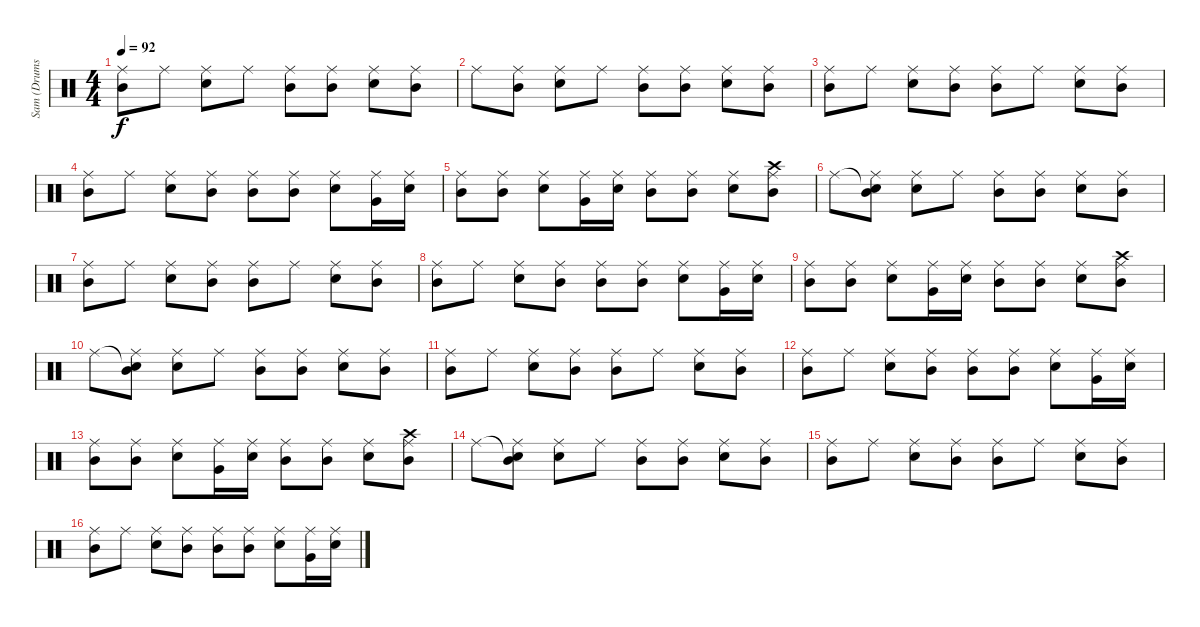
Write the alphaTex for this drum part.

\track ("Sam (Drums)" "Sam (Drums") {instrument percussion}
\staff {score}
\articulation defaults
\ts (4 4)
\tempo 92
\clef neutral
\ks c
("Mid Tom (hit)" "Ride (middle)").8{dy f} "Ride (middle)".8 ("Electric Snare (hit)" "Ride (middle)").8 "Ride (middle)".8 ("Mid Tom (hit)" "Ride (middle)").8 ("Mid Tom (hit)" "Ride (middle)").8 ("Electric Snare (hit)" "Ride (middle)").8 ("Mid Tom (hit)" "Ride (middle)").8 |
"Ride (middle)".8 ("Mid Tom (hit)" "Ride (middle)").8 ("Electric Snare (hit)" "Ride (middle)").8 "Ride (middle)".8 ("Mid Tom (hit)" "Ride (middle)").8 ("Mid Tom (hit)" "Ride (middle)").8 ("Electric Snare (hit)" "Ride (middle)").8 ("Mid Tom (hit)" "Ride (middle)").8 |
("Mid Tom (hit)" "Ride (middle)").8 "Ride (middle)".8 ("Electric Snare (hit)" "Ride (middle)").8 ("Mid Tom (hit)" "Ride (middle)").8 ("Mid Tom (hit)" "Ride (middle)").8 "Ride (middle)".8 ("Electric Snare (hit)" "Ride (middle)").8 ("Mid Tom (hit)" "Ride (middle)").8 |
("Mid Tom (hit)" "Ride (middle)").8 "Ride (middle)".8 ("Electric Snare (hit)" "Ride (middle)").8 ("Mid Tom (hit)" "Ride (middle)").8 ("Mid Tom (hit)" "Ride (middle)").8 ("Mid Tom (hit)" "Ride (middle)").8 ("Electric Snare (hit)" "Ride (middle)").8 ("Very Low Tom (hit)" "Ride (middle)").16 ("Electric Snare (hit)" "Ride (middle)").16 |
("Mid Tom (hit)" "Ride (middle)").8 ("Mid Tom (hit)" "Ride (middle)").8 ("Electric Snare (hit)" "Ride (middle)").8 ("Very Low Tom (hit)" "Ride (middle)").16 ("Electric Snare (hit)" "Ride (middle)").16 ("Mid Tom (hit)" "Ride (middle)").8 ("Mid Tom (hit)" "Ride (middle)").8 ("Electric Snare (hit)" "Ride (middle)").8 ("Crash high (hit)" "Mid Tom (hit)" "Ride (middle)").8 |
"Ride (middle)".8 ("Snare (hit)"{t} "Mid Tom (hit)" "Ride (middle)").8 ("Electric Snare (hit)" "Ride (middle)").8 "Ride (middle)".8 ("Mid Tom (hit)" "Ride (middle)").8 ("Mid Tom (hit)" "Ride (middle)").8 ("Electric Snare (hit)" "Ride (middle)").8 ("Mid Tom (hit)" "Ride (middle)").8 |
("Mid Tom (hit)" "Ride (middle)").8 "Ride (middle)".8 ("Electric Snare (hit)" "Ride (middle)").8 ("Mid Tom (hit)" "Ride (middle)").8 ("Mid Tom (hit)" "Ride (middle)").8 "Ride (middle)".8 ("Electric Snare (hit)" "Ride (middle)").8 ("Mid Tom (hit)" "Ride (middle)").8 |
("Mid Tom (hit)" "Ride (middle)").8 "Ride (middle)".8 ("Electric Snare (hit)" "Ride (middle)").8 ("Mid Tom (hit)" "Ride (middle)").8 ("Mid Tom (hit)" "Ride (middle)").8 ("Mid Tom (hit)" "Ride (middle)").8 ("Electric Snare (hit)" "Ride (middle)").8 ("Very Low Tom (hit)" "Ride (middle)").16 ("Electric Snare (hit)" "Ride (middle)").16 |
("Mid Tom (hit)" "Ride (middle)").8 ("Mid Tom (hit)" "Ride (middle)").8 ("Electric Snare (hit)" "Ride (middle)").8 ("Very Low Tom (hit)" "Ride (middle)").16 ("Electric Snare (hit)" "Ride (middle)").16 ("Mid Tom (hit)" "Ride (middle)").8 ("Mid Tom (hit)" "Ride (middle)").8 ("Electric Snare (hit)" "Ride (middle)").8 ("Crash high (hit)" "Mid Tom (hit)" "Ride (middle)").8 |
"Ride (middle)".8 ("Snare (hit)"{t} "Mid Tom (hit)" "Ride (middle)").8 ("Electric Snare (hit)" "Ride (middle)").8 "Ride (middle)".8 ("Mid Tom (hit)" "Ride (middle)").8 ("Mid Tom (hit)" "Ride (middle)").8 ("Electric Snare (hit)" "Ride (middle)").8 ("Mid Tom (hit)" "Ride (middle)").8 |
("Mid Tom (hit)" "Ride (middle)").8 "Ride (middle)".8 ("Electric Snare (hit)" "Ride (middle)").8 ("Mid Tom (hit)" "Ride (middle)").8 ("Mid Tom (hit)" "Ride (middle)").8 "Ride (middle)".8 ("Electric Snare (hit)" "Ride (middle)").8 ("Mid Tom (hit)" "Ride (middle)").8 |
("Mid Tom (hit)" "Ride (middle)").8 "Ride (middle)".8 ("Electric Snare (hit)" "Ride (middle)").8 ("Mid Tom (hit)" "Ride (middle)").8 ("Mid Tom (hit)" "Ride (middle)").8 ("Mid Tom (hit)" "Ride (middle)").8 ("Electric Snare (hit)" "Ride (middle)").8 ("Very Low Tom (hit)" "Ride (middle)").16 ("Electric Snare (hit)" "Ride (middle)").16 |
("Mid Tom (hit)" "Ride (middle)").8 ("Mid Tom (hit)" "Ride (middle)").8 ("Electric Snare (hit)" "Ride (middle)").8 ("Very Low Tom (hit)" "Ride (middle)").16 ("Electric Snare (hit)" "Ride (middle)").16 ("Mid Tom (hit)" "Ride (middle)").8 ("Mid Tom (hit)" "Ride (middle)").8 ("Electric Snare (hit)" "Ride (middle)").8 ("Crash high (hit)" "Mid Tom (hit)" "Ride (middle)").8 |
"Ride (middle)".8 ("Snare (hit)"{t} "Mid Tom (hit)" "Ride (middle)").8 ("Electric Snare (hit)" "Ride (middle)").8 "Ride (middle)".8 ("Mid Tom (hit)" "Ride (middle)").8 ("Mid Tom (hit)" "Ride (middle)").8 ("Electric Snare (hit)" "Ride (middle)").8 ("Mid Tom (hit)" "Ride (middle)").8 |
("Mid Tom (hit)" "Ride (middle)").8 "Ride (middle)".8 ("Electric Snare (hit)" "Ride (middle)").8 ("Mid Tom (hit)" "Ride (middle)").8 ("Mid Tom (hit)" "Ride (middle)").8 "Ride (middle)".8 ("Electric Snare (hit)" "Ride (middle)").8 ("Mid Tom (hit)" "Ride (middle)").8 |
("Mid Tom (hit)" "Ride (middle)").8 "Ride (middle)".8 ("Electric Snare (hit)" "Ride (middle)").8 ("Mid Tom (hit)" "Ride (middle)").8 ("Mid Tom (hit)" "Ride (middle)").8 ("Mid Tom (hit)" "Ride (middle)").8 ("Electric Snare (hit)" "Ride (middle)").8 ("Very Low Tom (hit)" "Ride (middle)").16 ("Electric Snare (hit)" "Ride (middle)").16
